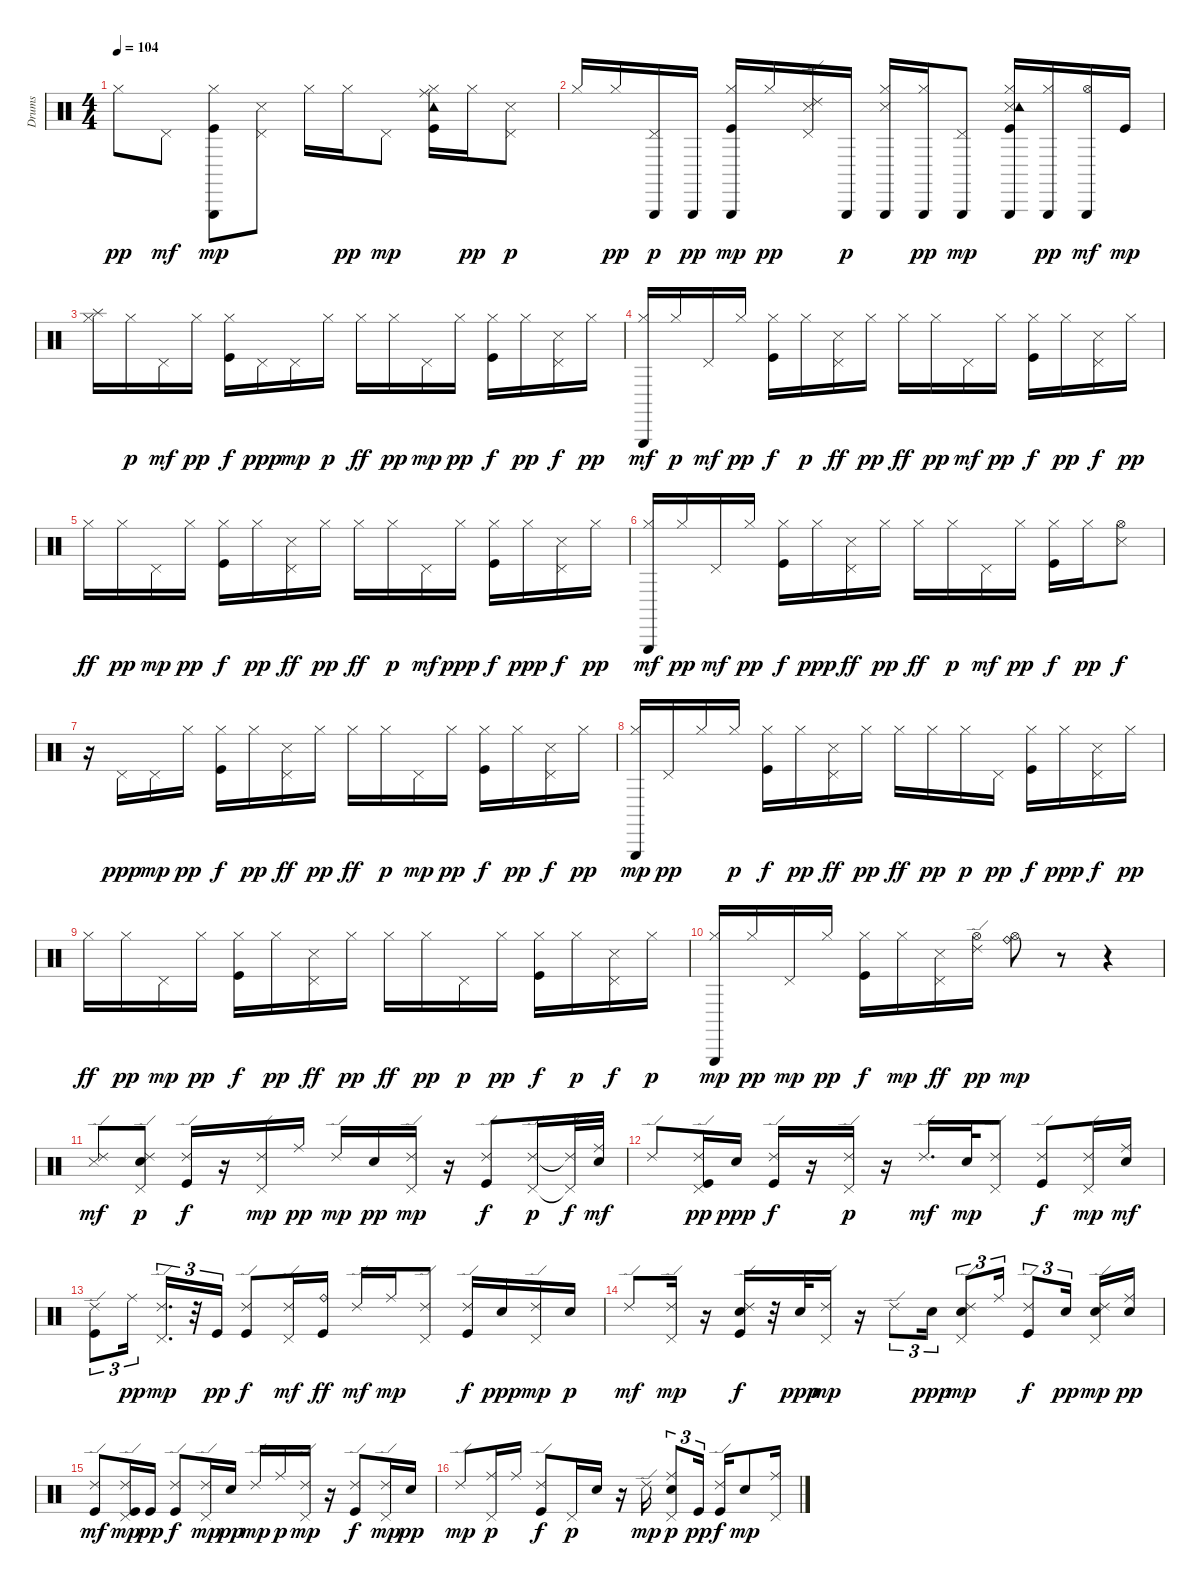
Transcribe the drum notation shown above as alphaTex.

\track ("Drums" "Drums") {instrument percussion}
\staff {score}
\articulation defaults
\ts (4 4)
\tempo 104
\clef neutral
\ks c "Hi-Hat (closed)".8{dy pp} "Pedal Hi-Hat (hit)".8{dy mf}
("Hi-Hat (closed)" "Triangle (hit)" "Kick (hit)").8{dy mp} ("Pedal Hi-Hat (hit)" "Snare (side stick) 3").8 "Hi-Hat (closed)".16 "Hi-Hat (closed)".16{dy pp} "Pedal Hi-Hat (hit)".8{dy mp} ("Hi-Hat (closed)" "Ride (middle)" "Tambourine (hit)" "Kick (hit)").16 "Hi-Hat (closed)".16{dy pp} ("Pedal Hi-Hat (hit)" "Snare (side stick) 3").8{dy p} |
"Hi-Hat (closed)".16 "Hi-Hat (closed)".16{dy pp} ("Pedal Hi-Hat (hit)" "Triangle (hit)").16{dy p} "Triangle (hit)".16{dy pp} ("Hi-Hat (closed)" "Triangle (hit)" "Kick (hit)").16{dy mp} "Hi-Hat (closed)".16{dy pp} ("Pedal Hi-Hat (hit)" "Ride (edge) 2" "Snare (side stick) 3").16 "Triangle (hit)".16{dy p} ("Hi-Hat (closed)" "Snare (side stick) 3" "Triangle (hit)").16 ("Hi-Hat (closed)" "Triangle (hit)").16{dy pp} ("Pedal Hi-Hat (hit)" "Triangle (hit)").8{dy mp} ("Hi-Hat (closed)" "Snare (side stick) 3" "Tambourine (hit)" "Triangle (hit)" "Kick (hit)").16 ("Hi-Hat (closed)" "Triangle (hit)").16{dy pp} ("Hi-Hat (open)" "Triangle (hit)").16{dy mf} "Kick (hit)".16{dy mp} |
("Hi-Hat (closed)" "Splash (hit)").16 "Hi-Hat (closed)".16{dy p} "Pedal Hi-Hat (hit)".16{dy mf} "Hi-Hat (closed)".16{dy pp} ("Hi-Hat (closed)" "Kick (hit)").16{dy f} "Pedal Hi-Hat (hit)".16{dy ppp} "Pedal Hi-Hat (hit)".16{dy mp} "Hi-Hat (closed)".16{dy p} "Hi-Hat (closed)".16{dy ff} "Hi-Hat (closed)".16{dy pp} "Pedal Hi-Hat (hit)".16{dy mp} "Hi-Hat (closed)".16{dy pp} ("Hi-Hat (closed)" "Kick (hit)").16{dy f} "Hi-Hat (closed)".16{dy pp} ("Pedal Hi-Hat (hit)" "Snare (side stick) 3").16{dy f} "Hi-Hat (closed)".16{dy pp} |
("Hi-Hat (closed)" "Triangle (hit)").16{dy mf} "Hi-Hat (closed)".16{dy p} "Pedal Hi-Hat (hit)".16{dy mf} "Hi-Hat (closed)".16{dy pp} ("Hi-Hat (closed)" "Kick (hit)").16{dy f} "Hi-Hat (closed)".16{dy p} ("Pedal Hi-Hat (hit)" "Snare (side stick) 3").16{dy ff} "Hi-Hat (closed)".16{dy pp} "Hi-Hat (closed)".16{dy ff} "Hi-Hat (closed)".16{dy pp} "Pedal Hi-Hat (hit)".16{dy mf} "Hi-Hat (closed)".16{dy pp} ("Hi-Hat (closed)" "Kick (hit)").16{dy f} "Hi-Hat (closed)".16{dy pp} ("Pedal Hi-Hat (hit)" "Snare (side stick) 3").16{dy f} "Hi-Hat (closed)".16{dy pp} |
"Hi-Hat (closed)".16{dy ff} "Hi-Hat (closed)".16{dy pp} "Pedal Hi-Hat (hit)".16{dy mp} "Hi-Hat (closed)".16{dy pp} ("Hi-Hat (closed)" "Kick (hit)").16{dy f} "Hi-Hat (closed)".16{dy pp} ("Pedal Hi-Hat (hit)" "Snare (side stick) 3").16{dy ff} "Hi-Hat (closed)".16{dy pp} "Hi-Hat (closed)".16{dy ff} "Hi-Hat (closed)".16{dy p} "Pedal Hi-Hat (hit)".16{dy mf} "Hi-Hat (closed)".16{dy ppp} ("Hi-Hat (closed)" "Kick (hit)").16{dy f} "Hi-Hat (closed)".16{dy ppp} ("Pedal Hi-Hat (hit)" "Snare (side stick) 3").16{dy f} "Hi-Hat (closed)".16{dy pp} |
("Hi-Hat (closed)" "Triangle (hit)").16{dy mf} "Hi-Hat (closed)".16{dy pp} "Pedal Hi-Hat (hit)".16{dy mf} "Hi-Hat (closed)".16{dy pp} ("Hi-Hat (closed)" "Kick (hit)").16{dy f} "Hi-Hat (closed)".16{dy ppp} ("Pedal Hi-Hat (hit)" "Snare (side stick) 3").16{dy ff} "Hi-Hat (closed)".16{dy pp} "Hi-Hat (closed)".16{dy ff} "Hi-Hat (closed)".16{dy p} "Pedal Hi-Hat (hit)".16{dy mf} "Hi-Hat (closed)".16{dy pp} ("Hi-Hat (closed)" "Kick (hit)").16{dy f} "Hi-Hat (closed)".16{dy pp} ("Hi-Hat (open)" "Snare (side stick) 3").8{dy f} |
r.16 "Pedal Hi-Hat (hit)".16{dy ppp} "Pedal Hi-Hat (hit)".16{dy mp} "Hi-Hat (closed)".16{dy pp} ("Hi-Hat (closed)" "Kick (hit)").16{dy f} "Hi-Hat (closed)".16{dy pp} ("Pedal Hi-Hat (hit)" "Snare (side stick) 3").16{dy ff} "Hi-Hat (closed)".16{dy pp} "Hi-Hat (closed)".16{dy ff} "Hi-Hat (closed)".16{dy p} "Pedal Hi-Hat (hit)".16{dy mp} "Hi-Hat (closed)".16{dy pp} ("Hi-Hat (closed)" "Kick (hit)").16{dy f} "Hi-Hat (closed)".16{dy pp} ("Pedal Hi-Hat (hit)" "Snare (side stick) 3").16{dy f} "Hi-Hat (closed)".16{dy pp} |
("Hi-Hat (closed)" "Triangle (hit)").16{dy mp} "Pedal Hi-Hat (hit)".16{dy pp} "Hi-Hat (closed)".16 "Hi-Hat (closed)".16{dy p} ("Hi-Hat (closed)" "Kick (hit)").16{dy f} "Hi-Hat (closed)".16{dy pp} ("Pedal Hi-Hat (hit)" "Snare (side stick) 3").16{dy ff} "Hi-Hat (closed)".16{dy pp} "Hi-Hat (closed)".16{dy ff} "Hi-Hat (closed)".16{dy pp} "Hi-Hat (closed)".16{dy p} "Pedal Hi-Hat (hit)".16{dy pp} ("Hi-Hat (closed)" "Kick (hit)").16{dy f} "Hi-Hat (closed)".16{dy ppp} ("Pedal Hi-Hat (hit)" "Snare (side stick) 3").16{dy f} "Hi-Hat (closed)".16{dy pp} |
"Hi-Hat (closed)".16{dy ff} "Hi-Hat (closed)".16{dy pp} "Pedal Hi-Hat (hit)".16{dy mp} "Hi-Hat (closed)".16{dy pp} ("Hi-Hat (closed)" "Kick (hit)").16{dy f} "Hi-Hat (closed)".16{dy pp} ("Pedal Hi-Hat (hit)" "Snare (side stick) 3").16{dy ff} "Hi-Hat (closed)".16{dy pp} "Hi-Hat (closed)".16{dy ff} "Hi-Hat (closed)".16{dy pp} "Pedal Hi-Hat (hit)".16{dy p} "Hi-Hat (closed)".16{dy pp} ("Hi-Hat (closed)" "Kick (hit)").16{dy f} "Hi-Hat (closed)".16{dy p} ("Pedal Hi-Hat (hit)" "Snare (side stick) 3").16{dy f} "Hi-Hat (closed)".16{dy p} |
("Hi-Hat (closed)" "Triangle (hit)").16{dy mp} "Hi-Hat (closed)".16{dy pp} "Pedal Hi-Hat (hit)".16{dy mp} "Hi-Hat (closed)".16{dy pp} ("Hi-Hat (closed)" "Kick (hit)").16{dy f} "Hi-Hat (closed)".16{dy mp} ("Pedal Hi-Hat (hit)" "Snare (side stick) 3").16{dy ff} ("Hi-Hat (open)" "Ride (edge) 2").16{dy pp} ("Hi-Hat (open)" "Ride (bell)").8{dy mp} r.8 r.4 |
("Ride (edge) 2" "Snare (side stick) 3").8{dy mf} ("Pedal Hi-Hat (hit)" "Ride (edge) 2" "Electric Snare (hit)").8{dy p} ("Ride (edge) 2" "Kick (hit)").16{dy f} r.16 ("Pedal Hi-Hat (hit)" "Ride (edge) 2").16{dy mp} "Ride (middle)".16{dy pp} "Ride (edge) 2".16{dy mp} "Electric Snare (hit)".16{dy pp} ("Pedal Hi-Hat (hit)" "Ride (edge) 2").16{dy mp} r.16 ("Ride (edge) 2" "Kick (hit)").8{dy f} ("Pedal Hi-Hat (hit)" "Ride (edge) 2").16{dy p} ("Pedal Hi-Hat (hit)"{t} "Ride (edge) 2"{t}).32{dy f} ("Ride (middle)" "Electric Snare (hit)").32{dy mf} |
"Ride (edge) 2".8 ("Pedal Hi-Hat (hit)" "Ride (edge) 2" "Kick (hit)").16{dy pp} "Electric Snare (hit)".16{dy ppp} ("Ride (edge) 2" "Kick (hit)").16{dy f} r.16 ("Pedal Hi-Hat (hit)" "Ride (edge) 2").16{dy p} r.16 "Ride (edge) 2".16{d dy mf} "Electric Snare (hit)".32{dy mp} ("Pedal Hi-Hat (hit)" "Ride (edge) 2").8 ("Ride (edge) 2" "Kick (hit)").8{dy f} ("Pedal Hi-Hat (hit)" "Ride (edge) 2").16{dy mp} ("Ride (middle)" "Electric Snare (hit)").16{dy mf} |
("Ride (edge) 2" "Kick (hit)").8{tu (3 2)} "Ride (middle)".16{tu (3 2) dy pp} ("Pedal Hi-Hat (hit)" "Ride (edge) 2").16{d tu (3 2) dy mp} r.32{tu (3 2)} "Kick (hit)".16{tu (3 2) dy pp} ("Ride (edge) 2" "Kick (hit)").8{dy f} ("Pedal Hi-Hat (hit)" "Ride (edge) 2").16{dy mf} ("Ride (bell)" "Kick (hit)").16{dy ff} "Ride (edge) 2".16{dy mf} "Ride (middle)".16{dy mp} ("Pedal Hi-Hat (hit)" "Ride (edge) 2").8 ("Ride (edge) 2" "Kick (hit)").16{dy f} "Electric Snare (hit)".16{dy ppp} ("Pedal Hi-Hat (hit)" "Ride (edge) 2").16{dy mp} "Electric Snare (hit)".16{dy p} |
"Ride (edge) 2".8{dy mf} ("Pedal Hi-Hat (hit)" "Ride (edge) 2").16{dy mp} r.16 ("Ride (edge) 2" "Electric Snare (hit)" "Kick (hit)").16{dy f} r.32 "Electric Snare (hit)".32{dy ppp} ("Pedal Hi-Hat (hit)" "Ride (edge) 2").16{dy mp} r.16 "Ride (edge) 2".8{tu (3 2)} "Electric Snare (hit)".16{tu (3 2) dy ppp} ("Pedal Hi-Hat (hit)" "Ride (edge) 2" "Electric Snare (hit)").8{tu (3 2) dy mp} "Ride (middle)".16{tu (3 2)} ("Ride (edge) 2" "Kick (hit)").8{tu (3 2) dy f} "Electric Snare (hit)".16{tu (3 2) dy pp} ("Pedal Hi-Hat (hit)" "Ride (edge) 2" "Electric Snare (hit)").16{dy mp} ("Ride (middle)" "Electric Snare (hit)").16{dy pp} |
("Ride (edge) 2" "Kick (hit)").8{dy mf} ("Pedal Hi-Hat (hit)" "Ride (edge) 2" "Kick (hit)").16{dy mp} "Kick (hit)".16{dy pp} ("Ride (edge) 2" "Kick (hit)").8{dy f} ("Pedal Hi-Hat (hit)" "Ride (edge) 2").16{dy mp} "Electric Snare (hit)".16{dy pp} "Ride (edge) 2".16{dy mp} "Ride (middle)".16{dy p} ("Pedal Hi-Hat (hit)" "Ride (edge) 2").16{dy mp} r.16 ("Ride (edge) 2" "Kick (hit)").8{dy f} ("Pedal Hi-Hat (hit)" "Ride (edge) 2").16{dy mp} "Electric Snare (hit)".16{dy pp} |
"Ride (edge) 2".8{dy mp} ("Pedal Hi-Hat (hit)" "Ride (middle)").16{dy p} "Ride (middle)".16 ("Ride (edge) 2" "Kick (hit)").8{dy f} "Pedal Hi-Hat (hit)".16{dy p} "Electric Snare (hit)".16 r.16 "Ride (edge) 2".16{dy mp} ("Pedal Hi-Hat (hit)" "Ride (middle)" "Electric Snare (hit)").8{tu (3 2) dy p} "Kick (hit)".16{tu (3 2) dy pp} ("Ride (edge) 2" "Kick (hit)").16{dy f} "Electric Snare (hit)".8{dy mp} ("Pedal Hi-Hat (hit)" "Ride (middle)").16
